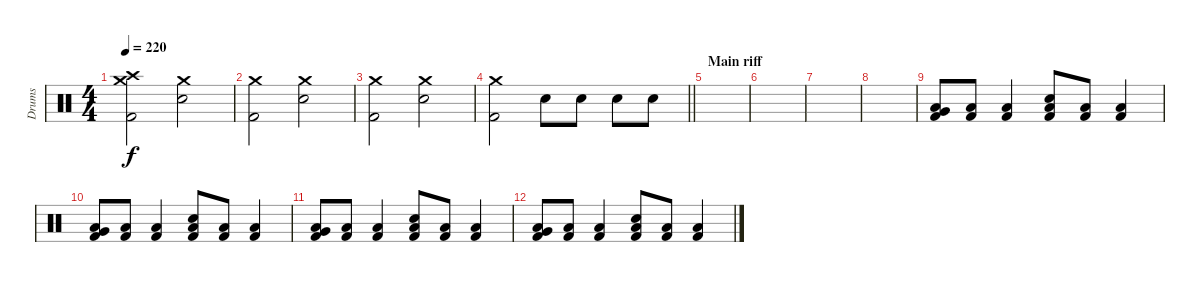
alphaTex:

\track ("Drums" "Drums") {instrument percussion}
\staff {score}
\articulation defaults
\ts (4 4)
\tempo 220
\clef neutral
\ks c
("Crash medium (hit)" "Crash high (hit)" "Kick (hit) 2").2{dy f} ("Crash medium (hit)" "Electric Snare (hit)").2 |
("Crash medium (hit)" "Kick (hit) 2").2 ("Crash medium (hit)" "Electric Snare (hit)").2 |
("Crash medium (hit)" "Kick (hit) 2").2 ("Crash medium (hit)" "Electric Snare (hit)").2 |
\barLineRight lightlight
("Crash medium (hit)" "Kick (hit) 2").2 "Electric Snare (hit)".8 "Electric Snare (hit)".8 "Electric Snare (hit)".8 "Electric Snare (hit)".8 |
\section ("" "Main riff")
|
|
|
|
("Very Low Tom (hit)" "Low Floor Tom (hit)" "Kick (hit) 2").8 ("Low Floor Tom (hit)" "Kick (hit) 2").8 ("Low Floor Tom (hit)" "Kick (hit) 2").4 ("Electric Snare (hit)" "Low Floor Tom (hit)" "Kick (hit) 2").8 ("Low Floor Tom (hit)" "Kick (hit) 2").8 ("Low Floor Tom (hit)" "Kick (hit) 2").4 |
("Very Low Tom (hit)" "Low Floor Tom (hit)" "Kick (hit) 2").8 ("Low Floor Tom (hit)" "Kick (hit) 2").8 ("Low Floor Tom (hit)" "Kick (hit) 2").4 ("Electric Snare (hit)" "Low Floor Tom (hit)" "Kick (hit) 2").8 ("Low Floor Tom (hit)" "Kick (hit) 2").8 ("Low Floor Tom (hit)" "Kick (hit) 2").4 |
("Very Low Tom (hit)" "Low Floor Tom (hit)" "Kick (hit) 2").8 ("Low Floor Tom (hit)" "Kick (hit) 2").8 ("Low Floor Tom (hit)" "Kick (hit) 2").4 ("Electric Snare (hit)" "Low Floor Tom (hit)" "Kick (hit) 2").8 ("Low Floor Tom (hit)" "Kick (hit) 2").8 ("Low Floor Tom (hit)" "Kick (hit) 2").4 |
("Very Low Tom (hit)" "Low Floor Tom (hit)" "Kick (hit) 2").8 ("Low Floor Tom (hit)" "Kick (hit) 2").8 ("Low Floor Tom (hit)" "Kick (hit) 2").4 ("Electric Snare (hit)" "Low Floor Tom (hit)" "Kick (hit) 2").8 ("Low Floor Tom (hit)" "Kick (hit) 2").8 ("Low Floor Tom (hit)" "Kick (hit) 2").4
